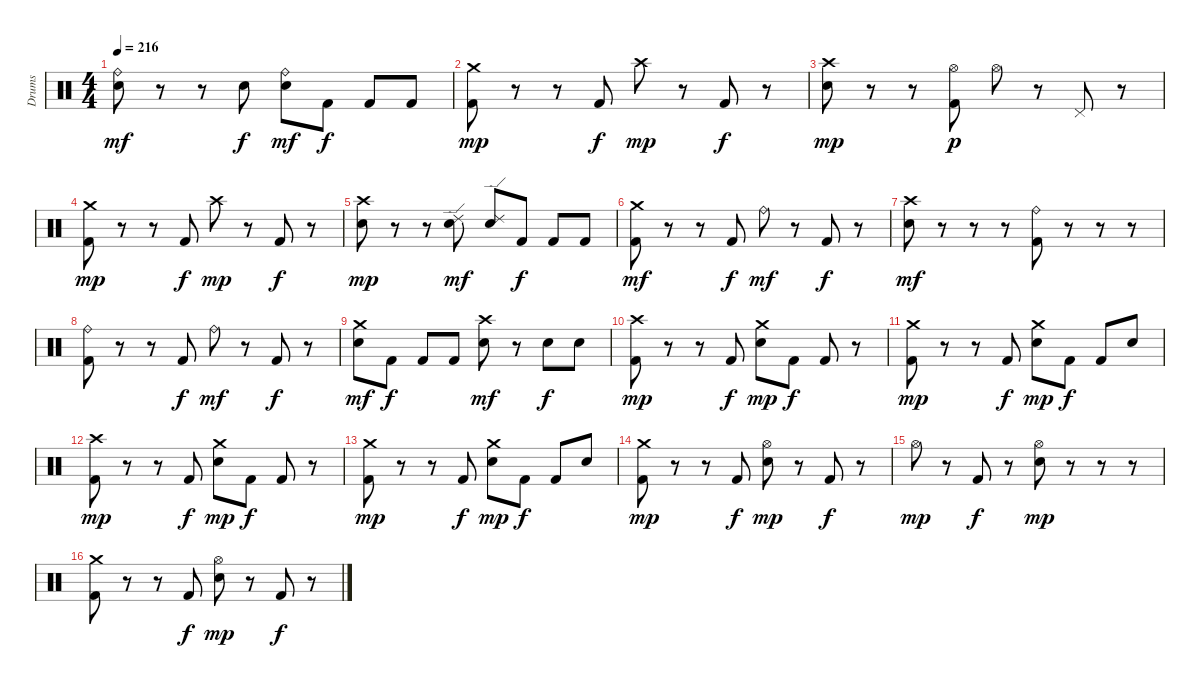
\track ("Drums" "Drums") {instrument percussion}
\staff {score}
\articulation defaults
\ts (4 4)
\tempo 216
\clef neutral
\ks c
("Snare (hit) 2" "Ride (bell)").8{dy mf} r.8 r.8 "Snare (hit) 2".8{dy f} ("Snare (hit) 2" "Ride (bell)").8{dy mf} "Kick (hit) 2".8{dy f} "Kick (hit) 2".8 "Kick (hit) 2".8 |
("Kick (hit) 2" "Crash medium (hit)").8{dy mp} r.8 r.8 "Kick (hit) 2".8{dy f} "Crash high (hit)".8{dy mp} r.8 "Kick (hit) 2".8{dy f} r.8 |
("Snare (hit) 2" "Crash high (hit)").8{dy mp} r.8 r.8 ("Kick (hit) 2" "Hi-Hat (open)").8{dy p} "Hi-Hat (open)".8 r.8 "Pedal Hi-Hat (hit)".8 r.8 |
("Kick (hit) 2" "Crash medium (hit)").8{dy mp} r.8 r.8 "Kick (hit) 2".8{dy f} "Crash high (hit)".8{dy mp} r.8 "Kick (hit) 2".8{dy f} r.8 |
("Snare (hit) 2" "Crash high (hit)").8{dy mp} r.8 r.8 ("Snare (hit) 2" "Ride (edge) 2").8{dy mf} ("Snare (hit) 2" "Ride (edge) 2").8 "Kick (hit) 2".8{dy f} "Kick (hit) 2".8 "Kick (hit) 2".8 |
("Kick (hit) 2" "Crash medium (hit)").8{dy mf} r.8 r.8 "Kick (hit) 2".8{dy f} "Ride (bell)".8{dy mf} r.8 "Kick (hit) 2".8{dy f} r.8 |
("Snare (hit) 2" "Crash high (hit)").8{dy mf} r.8 r.8 r.8 ("Kick (hit) 2" "Ride (bell)").8 r.8 r.8 r.8 |
("Kick (hit) 2" "Ride (bell)").8 r.8 r.8 "Kick (hit) 2".8{dy f} "Ride (bell)".8{dy mf} r.8 "Kick (hit) 2".8{dy f} r.8 |
("Snare (hit) 2" "Crash medium (hit)").8{dy mf} "Kick (hit) 2".8{dy f} "Kick (hit) 2".8 "Kick (hit) 2".8 ("Snare (hit) 2" "Crash high (hit)").8{dy mf} r.8 "Snare (hit) 2".8{dy f} "Snare (hit) 2".8 |
("Kick (hit) 2" "Crash high (hit)").8{dy mp} r.8 r.8 "Kick (hit) 2".8{dy f} ("Snare (hit) 2" "Crash medium (hit)").8{dy mp} "Kick (hit) 2".8{dy f} "Kick (hit) 2".8 r.8 |
("Kick (hit) 2" "Crash medium (hit)").8{dy mp} r.8 r.8 "Kick (hit) 2".8{dy f} ("Snare (hit) 2" "Crash medium (hit)").8{dy mp} "Kick (hit) 2".8{dy f} "Kick (hit) 2".8 "Snare (hit) 2".8 |
("Kick (hit) 2" "Crash high (hit)").8{dy mp} r.8 r.8 "Kick (hit) 2".8{dy f} ("Snare (hit) 2" "Crash medium (hit)").8{dy mp} "Kick (hit) 2".8{dy f} "Kick (hit) 2".8 r.8 |
("Kick (hit) 2" "Crash medium (hit)").8{dy mp} r.8 r.8 "Kick (hit) 2".8{dy f} ("Snare (hit) 2" "Crash medium (hit)").8{dy mp} "Kick (hit) 2".8{dy f} "Kick (hit) 2".8 "Snare (hit) 2".8 |
("Kick (hit) 2" "Crash medium (hit)").8{dy mp} r.8 r.8 "Kick (hit) 2".8{dy f} ("Snare (hit) 2" "Hi-Hat (open)").8{dy mp} r.8 "Kick (hit) 2".8{dy f} r.8 |
"Hi-Hat (open)".8{dy mp} r.8 "Kick (hit) 2".8{dy f} r.8 ("Snare (hit) 2" "Hi-Hat (open)").8{dy mp} r.8 r.8 r.8 |
("Kick (hit) 2" "Crash medium (hit)").8 r.8 r.8 "Kick (hit) 2".8{dy f} ("Snare (hit) 2" "Hi-Hat (open)").8{dy mp} r.8 "Kick (hit) 2".8{dy f} r.8
